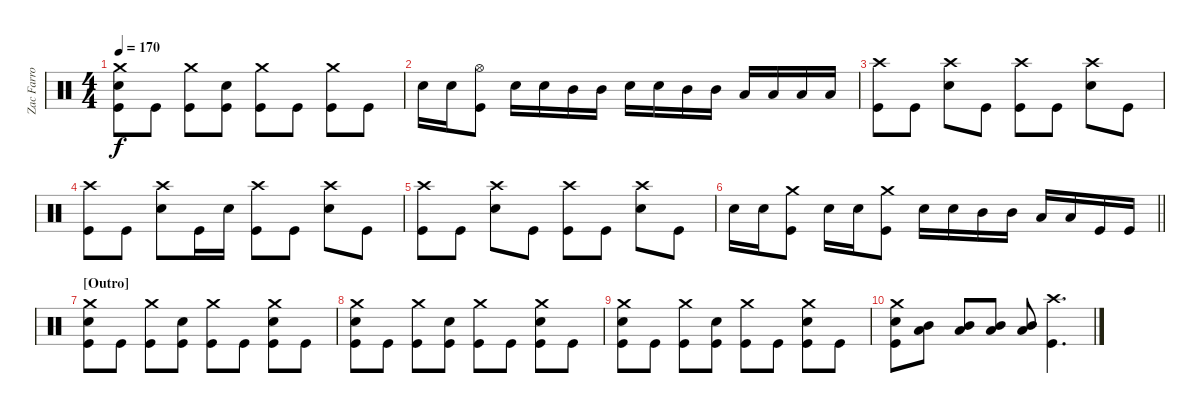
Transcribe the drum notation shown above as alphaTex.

\track ("Zac Farro" "Zac Farro") {instrument percussion}
\staff {score}
\articulation defaults
\ts (4 4)
\tempo 170
\clef neutral
\ks c
("Crash medium (hit)" "Electric Snare (hit)" "Kick (hit)").8{dy f} "Kick (hit)".8 ("Crash medium (hit)" "Kick (hit)").8 ("Electric Snare (hit)" "Kick (hit)").8 ("Crash medium (hit)" "Kick (hit)").8 "Kick (hit)".8 ("Crash medium (hit)" "Kick (hit)").8 "Kick (hit)".8 |
"Electric Snare (hit)".16 "Electric Snare (hit)".16 ("Hi-Hat (open)" "Kick (hit)").8 "Electric Snare (hit)".16 "Electric Snare (hit)".16 "Mid Tom (hit)".16 "Mid Tom (hit)".16 "Electric Snare (hit)".16 "Electric Snare (hit)".16 "Mid Tom (hit)".16 "Mid Tom (hit)".16 "Low Tom (hit)".16 "Low Tom (hit)".16 "Low Tom (hit)".16 "Low Tom (hit)".16 |
("Crash high (hit)" "Kick (hit)").8 "Kick (hit)".8 ("Crash high (hit)" "Electric Snare (hit)").8 "Kick (hit)".8 ("Crash high (hit)" "Kick (hit)").8 "Kick (hit)".8 ("Crash high (hit)" "Electric Snare (hit)").8 "Kick (hit)".8 |
("Crash high (hit)" "Kick (hit)").8 "Kick (hit)".8 ("Crash high (hit)" "Electric Snare (hit)").8 "Kick (hit)".16 "Electric Snare (hit)".16 ("Crash high (hit)" "Kick (hit)").8 "Kick (hit)".8 ("Crash high (hit)" "Electric Snare (hit)").8 "Kick (hit)".8 |
("Crash high (hit)" "Kick (hit)").8 "Kick (hit)".8 ("Crash high (hit)" "Electric Snare (hit)").8 "Kick (hit)".8 ("Crash high (hit)" "Kick (hit)").8 "Kick (hit)".8 ("Crash high (hit)" "Electric Snare (hit)").8 "Kick (hit)".8 |
\barLineRight lightlight "Electric Snare (hit)".16 "Electric Snare (hit)".16
("Crash medium (hit)" "Kick (hit)").8 "Electric Snare (hit)".16 "Electric Snare (hit)".16 ("Crash medium (hit)" "Kick (hit)").8 "Electric Snare (hit)".16 "Electric Snare (hit)".16 "Mid Tom (hit)".16 "Mid Tom (hit)".16 "Low Tom (hit)".16 "Low Tom (hit)".16 "Kick (hit)".16 "Kick (hit)".16 |
\section ("" "[Outro]")
("Crash medium (hit)" "Electric Snare (hit)" "Kick (hit)").8 "Kick (hit)".8 ("Crash medium (hit)" "Kick (hit)").8 ("Electric Snare (hit)" "Kick (hit)").8 ("Crash medium (hit)" "Kick (hit)").8 "Kick (hit)".8 ("Crash medium (hit)" "Electric Snare (hit)" "Kick (hit)").8 "Kick (hit)".8 |
("Crash medium (hit)" "Electric Snare (hit)" "Kick (hit)").8 "Kick (hit)".8 ("Crash medium (hit)" "Kick (hit)").8 ("Electric Snare (hit)" "Kick (hit)").8 ("Crash medium (hit)" "Kick (hit)").8 "Kick (hit)".8 ("Crash medium (hit)" "Electric Snare (hit)" "Kick (hit)").8 "Kick (hit)".8 |
("Crash medium (hit)" "Electric Snare (hit)" "Kick (hit)").8 "Kick (hit)".8 ("Crash medium (hit)" "Kick (hit)").8 ("Electric Snare (hit)" "Kick (hit)").8 ("Crash medium (hit)" "Kick (hit)").8 "Kick (hit)".8 ("Crash medium (hit)" "Electric Snare (hit)" "Kick (hit)").8 "Kick (hit)".8 |
("Crash medium (hit)" "Electric Snare (hit)" "Kick (hit)").8 ("Mid Tom (hit)" "Low Tom (hit)").8 ("Mid Tom (hit)" "Low Tom (hit)").8 ("Mid Tom (hit)" "Low Tom (hit)").8 ("Mid Tom (hit)" "Low Tom (hit)").8 ("Crash high (hit)" "Kick (hit)").4{d}
